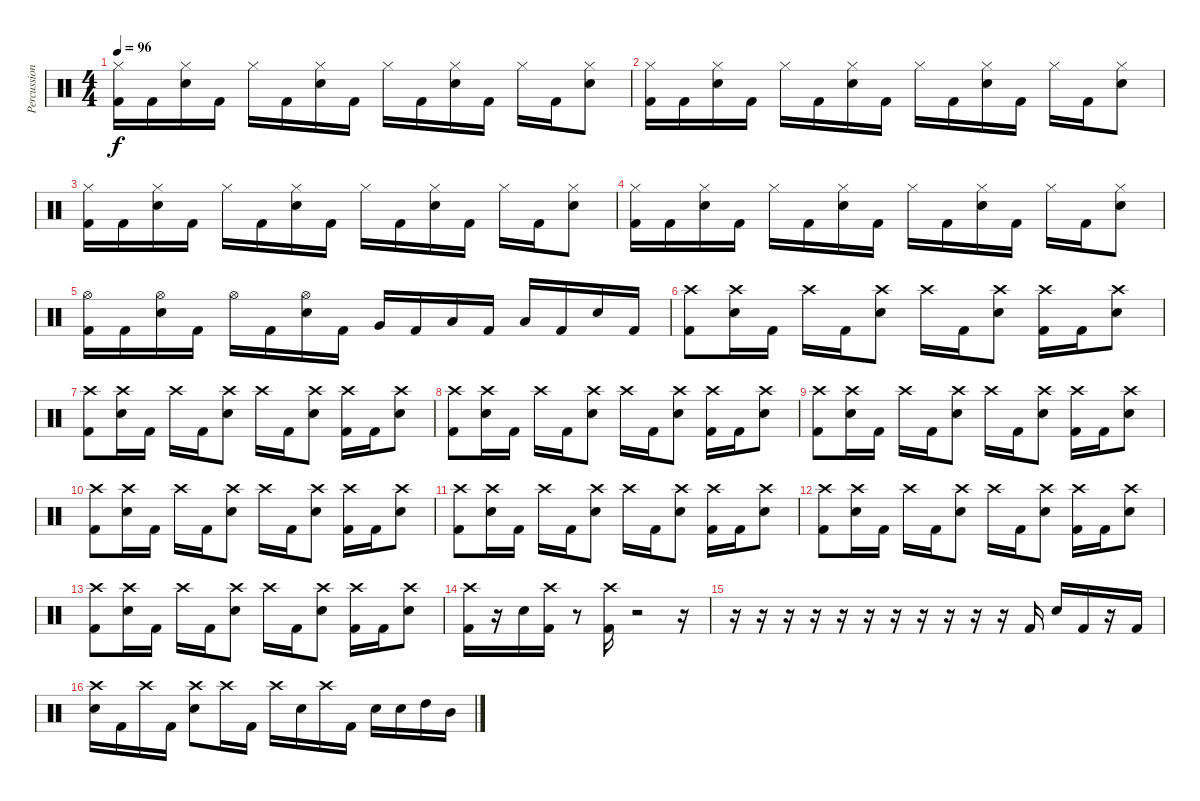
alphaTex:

\track ("Percussion" "Percussion") {instrument percussion}
\staff {score}
\articulation defaults
\ts (4 4)
\tempo 96
\clef neutral
\ks c
("Hi-Hat (closed)" "Kick (hit) 2").16{dy f} "Kick (hit) 2".16 ("Hi-Hat (closed)" "Snare (hit) 2").16 "Kick (hit) 2".16 "Hi-Hat (closed)".16 "Kick (hit) 2".16 ("Hi-Hat (closed)" "Snare (hit) 2").16 "Kick (hit) 2".16 "Hi-Hat (closed)".16 "Kick (hit) 2".16 ("Hi-Hat (closed)" "Snare (hit) 2").16 "Kick (hit) 2".16 "Hi-Hat (closed)".16 "Kick (hit) 2".16 ("Hi-Hat (closed)" "Snare (hit) 2").8 |
("Hi-Hat (closed)" "Kick (hit) 2").16 "Kick (hit) 2".16 ("Hi-Hat (closed)" "Snare (hit) 2").16 "Kick (hit) 2".16 "Hi-Hat (closed)".16 "Kick (hit) 2".16 ("Hi-Hat (closed)" "Snare (hit) 2").16 "Kick (hit) 2".16 "Hi-Hat (closed)".16 "Kick (hit) 2".16 ("Hi-Hat (closed)" "Snare (hit) 2").16 "Kick (hit) 2".16 "Hi-Hat (closed)".16 "Kick (hit) 2".16 ("Hi-Hat (closed)" "Snare (hit) 2").8 |
("Hi-Hat (closed)" "Kick (hit) 2").16 "Kick (hit) 2".16 ("Hi-Hat (closed)" "Snare (hit) 2").16 "Kick (hit) 2".16 "Hi-Hat (closed)".16 "Kick (hit) 2".16 ("Hi-Hat (closed)" "Snare (hit) 2").16 "Kick (hit) 2".16 "Hi-Hat (closed)".16 "Kick (hit) 2".16 ("Hi-Hat (closed)" "Snare (hit) 2").16 "Kick (hit) 2".16 "Hi-Hat (closed)".16 "Kick (hit) 2".16 ("Hi-Hat (closed)" "Snare (hit) 2").8 |
("Hi-Hat (closed)" "Kick (hit) 2").16 "Kick (hit) 2".16 ("Hi-Hat (closed)" "Snare (hit) 2").16 "Kick (hit) 2".16 "Hi-Hat (closed)".16 "Kick (hit) 2".16 ("Hi-Hat (closed)" "Snare (hit) 2").16 "Kick (hit) 2".16 "Hi-Hat (closed)".16 "Kick (hit) 2".16 ("Hi-Hat (closed)" "Snare (hit) 2").16 "Kick (hit) 2".16 "Hi-Hat (closed)".16 "Kick (hit) 2".16 ("Hi-Hat (closed)" "Snare (hit) 2").8 |
("Hi-Hat (open)" "Kick (hit) 2").16 "Kick (hit) 2".16 ("Hi-Hat (open)" "Snare (hit) 2").16 "Kick (hit) 2".16 "Hi-Hat (open)".16 "Kick (hit) 2".16 ("Hi-Hat (open)" "Snare (hit) 2").16 "Kick (hit) 2".16 "Very Low Tom (hit)".16 "Kick (hit) 2".16 "Low Floor Tom (hit)".16 "Kick (hit) 2".16 "Low Floor Tom (hit)".16 "Kick (hit) 2".16 "Snare (hit) 2".16 "Kick (hit) 2".16 |
("Crash high (hit)" "Kick (hit) 2").8 ("Crash high (hit)" "Snare (hit) 2").16 "Kick (hit) 2".16 "Crash high (hit)".16 "Kick (hit) 2".16 ("Crash high (hit)" "Snare (hit) 2").8 "Crash high (hit)".16 "Kick (hit) 2".16 ("Crash high (hit)" "Snare (hit) 2").8 ("Crash high (hit)" "Kick (hit) 2").16 "Kick (hit) 2".16 ("Crash high (hit)" "Snare (hit) 2").8 |
("Crash high (hit)" "Kick (hit) 2").8 ("Crash high (hit)" "Snare (hit) 2").16 "Kick (hit) 2".16 "Crash high (hit)".16 "Kick (hit) 2".16 ("Crash high (hit)" "Snare (hit) 2").8 "Crash high (hit)".16 "Kick (hit) 2".16 ("Crash high (hit)" "Snare (hit) 2").8 ("Crash high (hit)" "Kick (hit) 2").16 "Kick (hit) 2".16 ("Crash high (hit)" "Snare (hit) 2").8 |
("Crash high (hit)" "Kick (hit) 2").8 ("Crash high (hit)" "Snare (hit) 2").16 "Kick (hit) 2".16 "Crash high (hit)".16 "Kick (hit) 2".16 ("Crash high (hit)" "Snare (hit) 2").8 "Crash high (hit)".16 "Kick (hit) 2".16 ("Crash high (hit)" "Snare (hit) 2").8 ("Crash high (hit)" "Kick (hit) 2").16 "Kick (hit) 2".16 ("Crash high (hit)" "Snare (hit) 2").8 |
("Crash high (hit)" "Kick (hit) 2").8 ("Crash high (hit)" "Snare (hit) 2").16 "Kick (hit) 2".16 "Crash high (hit)".16 "Kick (hit) 2".16 ("Crash high (hit)" "Snare (hit) 2").8 "Crash high (hit)".16 "Kick (hit) 2".16 ("Crash high (hit)" "Snare (hit) 2").8 ("Crash high (hit)" "Kick (hit) 2").16 "Kick (hit) 2".16 ("Crash high (hit)" "Snare (hit) 2").8 |
("Crash high (hit)" "Kick (hit) 2").8 ("Crash high (hit)" "Snare (hit) 2").16 "Kick (hit) 2".16 "Crash high (hit)".16 "Kick (hit) 2".16 ("Crash high (hit)" "Snare (hit) 2").8 "Crash high (hit)".16 "Kick (hit) 2".16 ("Crash high (hit)" "Snare (hit) 2").8 ("Crash high (hit)" "Kick (hit) 2").16 "Kick (hit) 2".16 ("Crash high (hit)" "Snare (hit) 2").8 |
("Crash high (hit)" "Kick (hit) 2").8 ("Crash high (hit)" "Snare (hit) 2").16 "Kick (hit) 2".16 "Crash high (hit)".16 "Kick (hit) 2".16 ("Crash high (hit)" "Snare (hit) 2").8 "Crash high (hit)".16 "Kick (hit) 2".16 ("Crash high (hit)" "Snare (hit) 2").8 ("Crash high (hit)" "Kick (hit) 2").16 "Kick (hit) 2".16 ("Crash high (hit)" "Snare (hit) 2").8 |
("Crash high (hit)" "Kick (hit) 2").8 ("Crash high (hit)" "Snare (hit) 2").16 "Kick (hit) 2".16 "Crash high (hit)".16 "Kick (hit) 2".16 ("Crash high (hit)" "Snare (hit) 2").8 "Crash high (hit)".16 "Kick (hit) 2".16 ("Crash high (hit)" "Snare (hit) 2").8 ("Crash high (hit)" "Kick (hit) 2").16 "Kick (hit) 2".16 ("Crash high (hit)" "Snare (hit) 2").8 |
("Crash high (hit)" "Kick (hit) 2").8 ("Crash high (hit)" "Snare (hit) 2").16 "Kick (hit) 2".16 "Crash high (hit)".16 "Kick (hit) 2".16 ("Crash high (hit)" "Snare (hit) 2").8 "Crash high (hit)".16 "Kick (hit) 2".16 ("Crash high (hit)" "Snare (hit) 2").8 ("Crash high (hit)" "Kick (hit) 2").16 "Kick (hit) 2".16 ("Crash high (hit)" "Snare (hit) 2").8 |
("Crash high (hit)" "Kick (hit) 2").16 r.16 "Snare (hit) 2".16 ("Crash high (hit)" "Kick (hit) 2").16 r.8 ("Crash high (hit)" "Kick (hit) 2").16 r.2 r.16 |
r.16 r.16 r.16 r.16 r.16 r.16 r.16 r.16 r.16 r.16 r.16 "Kick (hit) 2".16 "Snare (hit) 2".16 "Kick (hit) 2".16 r.16 "Kick (hit) 2".16 |
("Crash high (hit)" "Snare (hit) 2").16 "Kick (hit) 2".16 "Crash high (hit)".16 "Kick (hit) 2".16 ("Crash high (hit)" "Snare (hit) 2").8 "Crash high (hit)".16 "Kick (hit) 2".16 "Crash high (hit)".16 "Snare (hit) 2".16 "Crash high (hit)".16 "Kick (hit) 2".16 "Snare (hit) 2".16 "Snare (hit) 2".16 "High Tom (hit)".16 "Mid Tom (hit)".16
